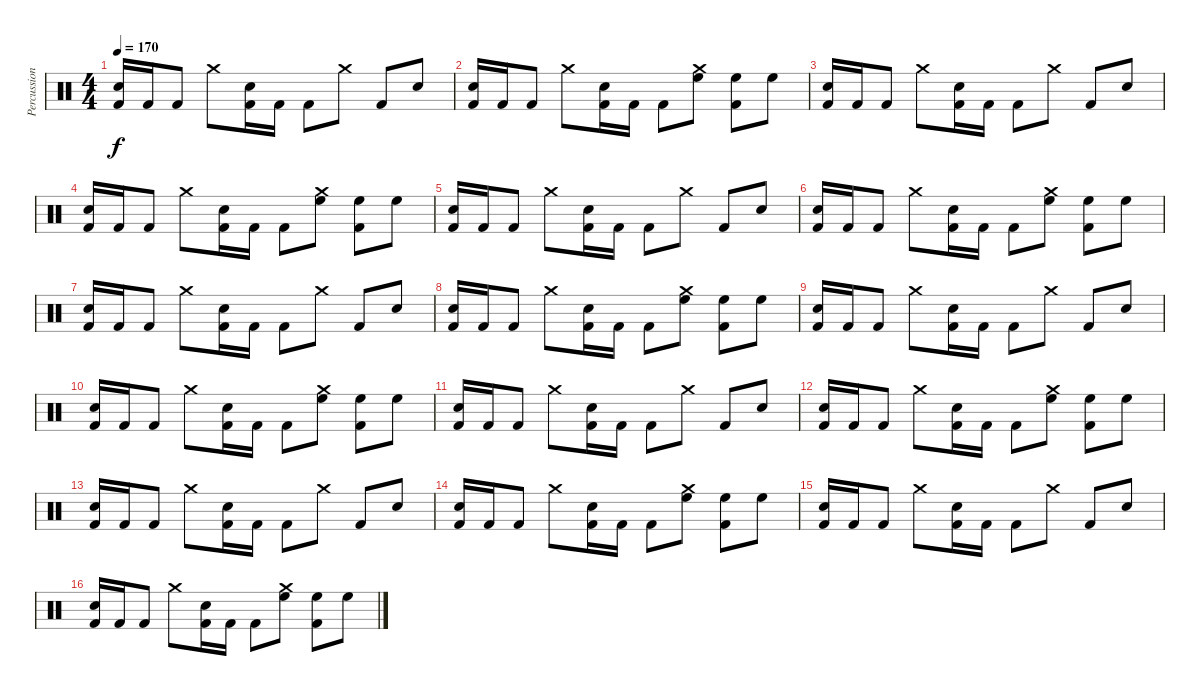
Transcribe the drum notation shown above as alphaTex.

\track ("Percussion" "Percussion") {instrument percussion}
\staff {score}
\articulation defaults
\ts (4 4)
\tempo 170
\clef neutral
\ks c
("Electric Snare (hit)" "Kick (hit) 2").16{dy f} "Kick (hit) 2".16 "Kick (hit) 2".8 "Crash medium (hit)".8 ("Electric Snare (hit)" "Kick (hit) 2").16 "Kick (hit) 2".16 "Kick (hit) 2".8 "Crash medium (hit)".8 "Kick (hit) 2".8 "Electric Snare (hit)".8 |
("Electric Snare (hit)" "Kick (hit) 2").16 "Kick (hit) 2".16 "Kick (hit) 2".8 "Crash medium (hit)".8 ("Electric Snare (hit)" "Kick (hit) 2").16 "Kick (hit) 2".16 "Kick (hit) 2".8 ("Crash medium (hit)" "High Floor Tom (hit)").8 ("High Floor Tom (hit)" "Kick (hit) 2").8 "High Floor Tom (hit)".8 |
("Electric Snare (hit)" "Kick (hit) 2").16 "Kick (hit) 2".16 "Kick (hit) 2".8 "Crash medium (hit)".8 ("Electric Snare (hit)" "Kick (hit) 2").16 "Kick (hit) 2".16 "Kick (hit) 2".8 "Crash medium (hit)".8 "Kick (hit) 2".8 "Electric Snare (hit)".8 |
("Electric Snare (hit)" "Kick (hit) 2").16 "Kick (hit) 2".16 "Kick (hit) 2".8 "Crash medium (hit)".8 ("Electric Snare (hit)" "Kick (hit) 2").16 "Kick (hit) 2".16 "Kick (hit) 2".8 ("Crash medium (hit)" "High Floor Tom (hit)").8 ("High Floor Tom (hit)" "Kick (hit) 2").8 "High Floor Tom (hit)".8 |
("Electric Snare (hit)" "Kick (hit) 2").16 "Kick (hit) 2".16 "Kick (hit) 2".8 "Crash medium (hit)".8 ("Electric Snare (hit)" "Kick (hit) 2").16 "Kick (hit) 2".16 "Kick (hit) 2".8 "Crash medium (hit)".8 "Kick (hit) 2".8 "Electric Snare (hit)".8 |
("Electric Snare (hit)" "Kick (hit) 2").16 "Kick (hit) 2".16 "Kick (hit) 2".8 "Crash medium (hit)".8 ("Electric Snare (hit)" "Kick (hit) 2").16 "Kick (hit) 2".16 "Kick (hit) 2".8 ("Crash medium (hit)" "High Floor Tom (hit)").8 ("High Floor Tom (hit)" "Kick (hit) 2").8 "High Floor Tom (hit)".8 |
("Electric Snare (hit)" "Kick (hit) 2").16 "Kick (hit) 2".16 "Kick (hit) 2".8 "Crash medium (hit)".8 ("Electric Snare (hit)" "Kick (hit) 2").16 "Kick (hit) 2".16 "Kick (hit) 2".8 "Crash medium (hit)".8 "Kick (hit) 2".8 "Electric Snare (hit)".8 |
("Electric Snare (hit)" "Kick (hit) 2").16 "Kick (hit) 2".16 "Kick (hit) 2".8 "Crash medium (hit)".8 ("Electric Snare (hit)" "Kick (hit) 2").16 "Kick (hit) 2".16 "Kick (hit) 2".8 ("Crash medium (hit)" "High Floor Tom (hit)").8 ("High Floor Tom (hit)" "Kick (hit) 2").8 "High Floor Tom (hit)".8 |
("Electric Snare (hit)" "Kick (hit) 2").16 "Kick (hit) 2".16 "Kick (hit) 2".8 "Crash medium (hit)".8 ("Electric Snare (hit)" "Kick (hit) 2").16 "Kick (hit) 2".16 "Kick (hit) 2".8 "Crash medium (hit)".8 "Kick (hit) 2".8 "Electric Snare (hit)".8 |
("Electric Snare (hit)" "Kick (hit) 2").16 "Kick (hit) 2".16 "Kick (hit) 2".8 "Crash medium (hit)".8 ("Electric Snare (hit)" "Kick (hit) 2").16 "Kick (hit) 2".16 "Kick (hit) 2".8 ("Crash medium (hit)" "High Floor Tom (hit)").8 ("High Floor Tom (hit)" "Kick (hit) 2").8 "High Floor Tom (hit)".8 |
("Electric Snare (hit)" "Kick (hit) 2").16 "Kick (hit) 2".16 "Kick (hit) 2".8 "Crash medium (hit)".8 ("Electric Snare (hit)" "Kick (hit) 2").16 "Kick (hit) 2".16 "Kick (hit) 2".8 "Crash medium (hit)".8 "Kick (hit) 2".8 "Electric Snare (hit)".8 |
("Electric Snare (hit)" "Kick (hit) 2").16 "Kick (hit) 2".16 "Kick (hit) 2".8 "Crash medium (hit)".8 ("Electric Snare (hit)" "Kick (hit) 2").16 "Kick (hit) 2".16 "Kick (hit) 2".8 ("Crash medium (hit)" "High Floor Tom (hit)").8 ("High Floor Tom (hit)" "Kick (hit) 2").8 "High Floor Tom (hit)".8 |
("Electric Snare (hit)" "Kick (hit) 2").16 "Kick (hit) 2".16 "Kick (hit) 2".8 "Crash medium (hit)".8 ("Electric Snare (hit)" "Kick (hit) 2").16 "Kick (hit) 2".16 "Kick (hit) 2".8 "Crash medium (hit)".8 "Kick (hit) 2".8 "Electric Snare (hit)".8 |
("Electric Snare (hit)" "Kick (hit) 2").16 "Kick (hit) 2".16 "Kick (hit) 2".8 "Crash medium (hit)".8 ("Electric Snare (hit)" "Kick (hit) 2").16 "Kick (hit) 2".16 "Kick (hit) 2".8 ("Crash medium (hit)" "High Floor Tom (hit)").8 ("High Floor Tom (hit)" "Kick (hit) 2").8 "High Floor Tom (hit)".8 |
("Electric Snare (hit)" "Kick (hit) 2").16 "Kick (hit) 2".16 "Kick (hit) 2".8 "Crash medium (hit)".8 ("Electric Snare (hit)" "Kick (hit) 2").16 "Kick (hit) 2".16 "Kick (hit) 2".8 "Crash medium (hit)".8 "Kick (hit) 2".8 "Electric Snare (hit)".8 |
("Electric Snare (hit)" "Kick (hit) 2").16 "Kick (hit) 2".16 "Kick (hit) 2".8 "Crash medium (hit)".8 ("Electric Snare (hit)" "Kick (hit) 2").16 "Kick (hit) 2".16 "Kick (hit) 2".8 ("Crash medium (hit)" "High Floor Tom (hit)").8 ("High Floor Tom (hit)" "Kick (hit) 2").8 "High Floor Tom (hit)".8
